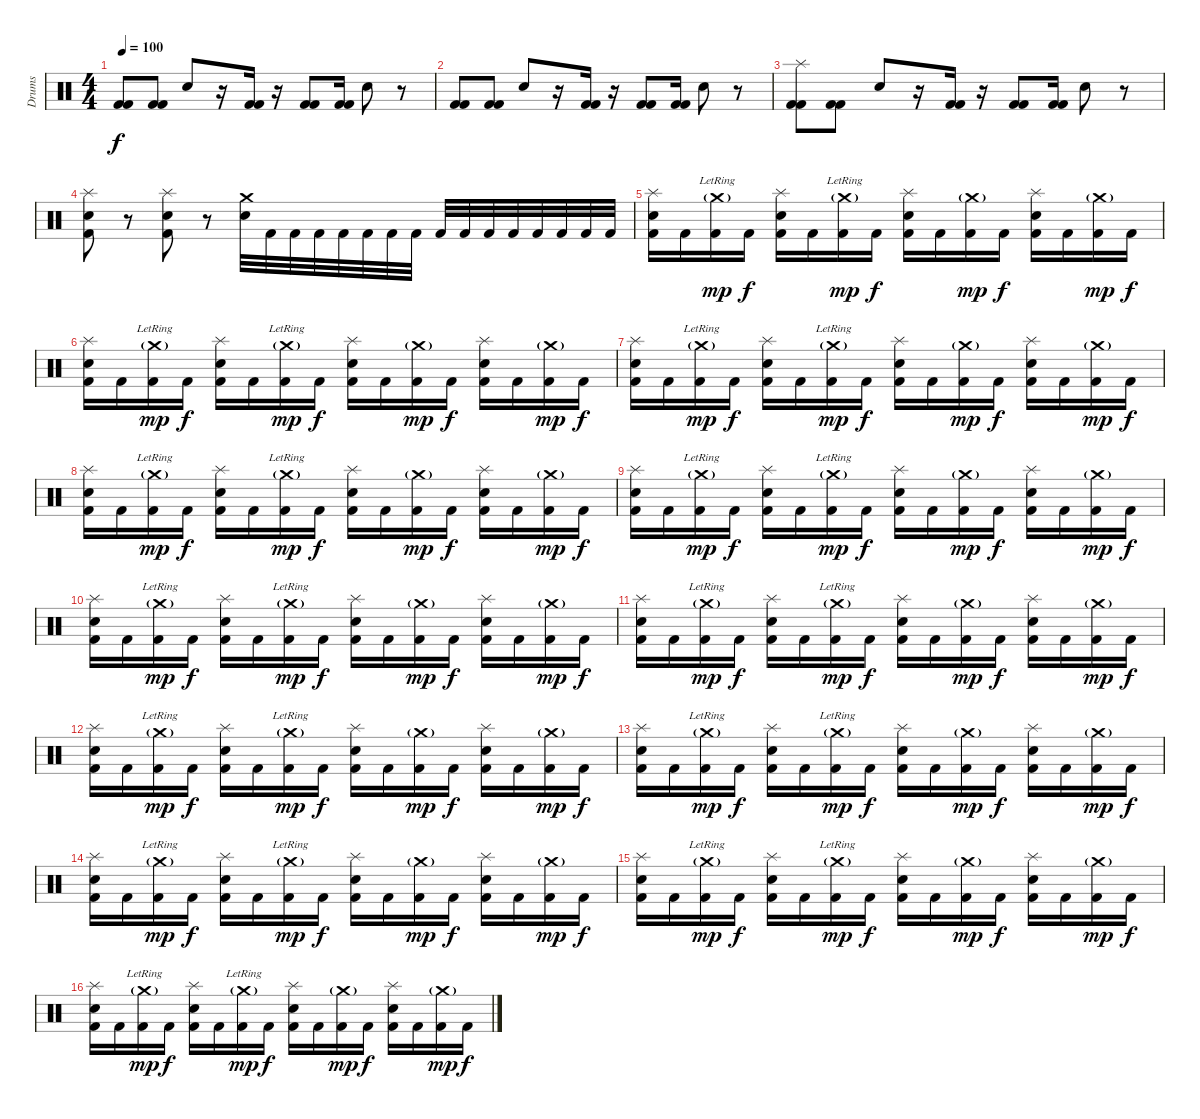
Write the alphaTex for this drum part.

\track ("Drums" "Drums") {instrument percussion}
\staff {score}
\articulation defaults
\ts (4 4)
\tempo 100
\clef neutral
\ks c
("Kick (hit) 2" "Kick (hit) 2").8{dy f} ("Kick (hit) 2" "Kick (hit) 2").8 "Electric Snare (hit)".8 r.16 ("Kick (hit) 2" "Kick (hit) 2").16 r.16 ("Kick (hit) 2" "Kick (hit) 2").8 ("Kick (hit) 2" "Kick (hit) 2").16 "Electric Snare (hit)".8 r.8 |
("Kick (hit) 2" "Kick (hit) 2").8 ("Kick (hit) 2" "Kick (hit) 2").8 "Electric Snare (hit)".8 r.16 ("Kick (hit) 2" "Kick (hit) 2").16 r.16 ("Kick (hit) 2" "Kick (hit) 2").8 ("Kick (hit) 2" "Kick (hit) 2").16 "Electric Snare (hit)".8 r.8 |
("Splash (hit)" "Kick (hit) 2" "Kick (hit) 2").8 ("Kick (hit) 2" "Kick (hit) 2").8 "Electric Snare (hit)".8 r.16 ("Kick (hit) 2" "Kick (hit) 2").16 r.16 ("Kick (hit) 2" "Kick (hit) 2").8 ("Kick (hit) 2" "Kick (hit) 2").16 "Electric Snare (hit)".8 r.8 |
("Splash (hit)" "Electric Snare (hit)" "Kick (hit) 2").8 r.8 ("Splash (hit)" "Electric Snare (hit)" "Kick (hit) 2").8 r.8 ("Crash medium (hit)" "Electric Snare (hit)").32 "Kick (hit) 2".32 "Kick (hit) 2".32 "Kick (hit) 2".32 "Kick (hit) 2".32 "Kick (hit) 2".32 "Kick (hit) 2".32 "Kick (hit) 2".32 "Kick (hit) 2".32 "Kick (hit) 2".32 "Kick (hit) 2".32 "Kick (hit) 2".32 "Kick (hit) 2".32 "Kick (hit) 2".32 "Kick (hit) 2".32 "Kick (hit) 2".32 |
("Splash (hit)" "Electric Snare (hit)" "Kick (hit) 2").16 "Kick (hit) 2".16 ("Crash medium (hit)"{g lr} "Kick (hit) 2").16{dy mp} "Kick (hit) 2".16{dy f} ("Splash (hit)" "Electric Snare (hit)" "Kick (hit) 2").16 "Kick (hit) 2".16 ("Crash medium (hit)"{g lr} "Kick (hit) 2").16{dy mp} "Kick (hit) 2".16{dy f} ("Splash (hit)" "Electric Snare (hit)" "Kick (hit) 2").16 "Kick (hit) 2".16 ("Crash medium (hit)"{g} "Kick (hit) 2").16{dy mp} "Kick (hit) 2".16{dy f} ("Splash (hit)" "Electric Snare (hit)" "Kick (hit) 2").16 "Kick (hit) 2".16 ("Crash medium (hit)"{g} "Kick (hit) 2").16{dy mp} "Kick (hit) 2".16{dy f} |
("Splash (hit)" "Electric Snare (hit)" "Kick (hit) 2").16 "Kick (hit) 2".16 ("Crash medium (hit)"{g lr} "Kick (hit) 2").16{dy mp} "Kick (hit) 2".16{dy f} ("Splash (hit)" "Electric Snare (hit)" "Kick (hit) 2").16 "Kick (hit) 2".16 ("Crash medium (hit)"{g lr} "Kick (hit) 2").16{dy mp} "Kick (hit) 2".16{dy f} ("Splash (hit)" "Electric Snare (hit)" "Kick (hit) 2").16 "Kick (hit) 2".16 ("Crash medium (hit)"{g} "Kick (hit) 2").16{dy mp} "Kick (hit) 2".16{dy f} ("Splash (hit)" "Electric Snare (hit)" "Kick (hit) 2").16 "Kick (hit) 2".16 ("Crash medium (hit)"{g} "Kick (hit) 2").16{dy mp} "Kick (hit) 2".16{dy f} |
("Splash (hit)" "Electric Snare (hit)" "Kick (hit) 2").16 "Kick (hit) 2".16 ("Crash medium (hit)"{g lr} "Kick (hit) 2").16{dy mp} "Kick (hit) 2".16{dy f} ("Splash (hit)" "Electric Snare (hit)" "Kick (hit) 2").16 "Kick (hit) 2".16 ("Crash medium (hit)"{g lr} "Kick (hit) 2").16{dy mp} "Kick (hit) 2".16{dy f} ("Splash (hit)" "Electric Snare (hit)" "Kick (hit) 2").16 "Kick (hit) 2".16 ("Crash medium (hit)"{g} "Kick (hit) 2").16{dy mp} "Kick (hit) 2".16{dy f} ("Splash (hit)" "Electric Snare (hit)" "Kick (hit) 2").16 "Kick (hit) 2".16 ("Crash medium (hit)"{g} "Kick (hit) 2").16{dy mp} "Kick (hit) 2".16{dy f} |
("Splash (hit)" "Electric Snare (hit)" "Kick (hit) 2").16 "Kick (hit) 2".16 ("Crash medium (hit)"{g lr} "Kick (hit) 2").16{dy mp} "Kick (hit) 2".16{dy f} ("Splash (hit)" "Electric Snare (hit)" "Kick (hit) 2").16 "Kick (hit) 2".16 ("Crash medium (hit)"{g lr} "Kick (hit) 2").16{dy mp} "Kick (hit) 2".16{dy f} ("Splash (hit)" "Electric Snare (hit)" "Kick (hit) 2").16 "Kick (hit) 2".16 ("Crash medium (hit)"{g} "Kick (hit) 2").16{dy mp} "Kick (hit) 2".16{dy f} ("Splash (hit)" "Electric Snare (hit)" "Kick (hit) 2").16 "Kick (hit) 2".16 ("Crash medium (hit)"{g} "Kick (hit) 2").16{dy mp} "Kick (hit) 2".16{dy f} |
("Splash (hit)" "Electric Snare (hit)" "Kick (hit) 2").16 "Kick (hit) 2".16 ("Crash medium (hit)"{g lr} "Kick (hit) 2").16{dy mp} "Kick (hit) 2".16{dy f} ("Splash (hit)" "Electric Snare (hit)" "Kick (hit) 2").16 "Kick (hit) 2".16 ("Crash medium (hit)"{g lr} "Kick (hit) 2").16{dy mp} "Kick (hit) 2".16{dy f} ("Splash (hit)" "Electric Snare (hit)" "Kick (hit) 2").16 "Kick (hit) 2".16 ("Crash medium (hit)"{g} "Kick (hit) 2").16{dy mp} "Kick (hit) 2".16{dy f} ("Splash (hit)" "Electric Snare (hit)" "Kick (hit) 2").16 "Kick (hit) 2".16 ("Crash medium (hit)"{g} "Kick (hit) 2").16{dy mp} "Kick (hit) 2".16{dy f} |
("Splash (hit)" "Electric Snare (hit)" "Kick (hit) 2").16 "Kick (hit) 2".16 ("Crash medium (hit)"{g lr} "Kick (hit) 2").16{dy mp} "Kick (hit) 2".16{dy f} ("Splash (hit)" "Electric Snare (hit)" "Kick (hit) 2").16 "Kick (hit) 2".16 ("Crash medium (hit)"{g lr} "Kick (hit) 2").16{dy mp} "Kick (hit) 2".16{dy f} ("Splash (hit)" "Electric Snare (hit)" "Kick (hit) 2").16 "Kick (hit) 2".16 ("Crash medium (hit)"{g} "Kick (hit) 2").16{dy mp} "Kick (hit) 2".16{dy f} ("Splash (hit)" "Electric Snare (hit)" "Kick (hit) 2").16 "Kick (hit) 2".16 ("Crash medium (hit)"{g} "Kick (hit) 2").16{dy mp} "Kick (hit) 2".16{dy f} |
("Splash (hit)" "Electric Snare (hit)" "Kick (hit) 2").16 "Kick (hit) 2".16 ("Crash medium (hit)"{g lr} "Kick (hit) 2").16{dy mp} "Kick (hit) 2".16{dy f} ("Splash (hit)" "Electric Snare (hit)" "Kick (hit) 2").16 "Kick (hit) 2".16 ("Crash medium (hit)"{g lr} "Kick (hit) 2").16{dy mp} "Kick (hit) 2".16{dy f} ("Splash (hit)" "Electric Snare (hit)" "Kick (hit) 2").16 "Kick (hit) 2".16 ("Crash medium (hit)"{g} "Kick (hit) 2").16{dy mp} "Kick (hit) 2".16{dy f} ("Splash (hit)" "Electric Snare (hit)" "Kick (hit) 2").16 "Kick (hit) 2".16 ("Crash medium (hit)"{g} "Kick (hit) 2").16{dy mp} "Kick (hit) 2".16{dy f} |
("Splash (hit)" "Electric Snare (hit)" "Kick (hit) 2").16 "Kick (hit) 2".16 ("Crash medium (hit)"{g lr} "Kick (hit) 2").16{dy mp} "Kick (hit) 2".16{dy f} ("Splash (hit)" "Electric Snare (hit)" "Kick (hit) 2").16 "Kick (hit) 2".16 ("Crash medium (hit)"{g lr} "Kick (hit) 2").16{dy mp} "Kick (hit) 2".16{dy f} ("Splash (hit)" "Electric Snare (hit)" "Kick (hit) 2").16 "Kick (hit) 2".16 ("Crash medium (hit)"{g} "Kick (hit) 2").16{dy mp} "Kick (hit) 2".16{dy f} ("Splash (hit)" "Electric Snare (hit)" "Kick (hit) 2").16 "Kick (hit) 2".16 ("Crash medium (hit)"{g} "Kick (hit) 2").16{dy mp} "Kick (hit) 2".16{dy f} |
("Splash (hit)" "Electric Snare (hit)" "Kick (hit) 2").16 "Kick (hit) 2".16 ("Crash medium (hit)"{g lr} "Kick (hit) 2").16{dy mp} "Kick (hit) 2".16{dy f} ("Splash (hit)" "Electric Snare (hit)" "Kick (hit) 2").16 "Kick (hit) 2".16 ("Crash medium (hit)"{g lr} "Kick (hit) 2").16{dy mp} "Kick (hit) 2".16{dy f} ("Splash (hit)" "Electric Snare (hit)" "Kick (hit) 2").16 "Kick (hit) 2".16 ("Crash medium (hit)"{g} "Kick (hit) 2").16{dy mp} "Kick (hit) 2".16{dy f} ("Splash (hit)" "Electric Snare (hit)" "Kick (hit) 2").16 "Kick (hit) 2".16 ("Crash medium (hit)"{g} "Kick (hit) 2").16{dy mp} "Kick (hit) 2".16{dy f} |
("Splash (hit)" "Electric Snare (hit)" "Kick (hit) 2").16 "Kick (hit) 2".16 ("Crash medium (hit)"{g lr} "Kick (hit) 2").16{dy mp} "Kick (hit) 2".16{dy f} ("Splash (hit)" "Electric Snare (hit)" "Kick (hit) 2").16 "Kick (hit) 2".16 ("Crash medium (hit)"{g lr} "Kick (hit) 2").16{dy mp} "Kick (hit) 2".16{dy f} ("Splash (hit)" "Electric Snare (hit)" "Kick (hit) 2").16 "Kick (hit) 2".16 ("Crash medium (hit)"{g} "Kick (hit) 2").16{dy mp} "Kick (hit) 2".16{dy f} ("Splash (hit)" "Electric Snare (hit)" "Kick (hit) 2").16 "Kick (hit) 2".16 ("Crash medium (hit)"{g} "Kick (hit) 2").16{dy mp} "Kick (hit) 2".16{dy f} |
("Splash (hit)" "Electric Snare (hit)" "Kick (hit) 2").16 "Kick (hit) 2".16 ("Crash medium (hit)"{g lr} "Kick (hit) 2").16{dy mp} "Kick (hit) 2".16{dy f} ("Splash (hit)" "Electric Snare (hit)" "Kick (hit) 2").16 "Kick (hit) 2".16 ("Crash medium (hit)"{g lr} "Kick (hit) 2").16{dy mp} "Kick (hit) 2".16{dy f} ("Splash (hit)" "Electric Snare (hit)" "Kick (hit) 2").16 "Kick (hit) 2".16 ("Crash medium (hit)"{g} "Kick (hit) 2").16{dy mp} "Kick (hit) 2".16{dy f} ("Splash (hit)" "Electric Snare (hit)" "Kick (hit) 2").16 "Kick (hit) 2".16 ("Crash medium (hit)"{g} "Kick (hit) 2").16{dy mp} "Kick (hit) 2".16{dy f} |
("Splash (hit)" "Electric Snare (hit)" "Kick (hit) 2").16 "Kick (hit) 2".16 ("Crash medium (hit)"{g lr} "Kick (hit) 2").16{dy mp} "Kick (hit) 2".16{dy f} ("Splash (hit)" "Electric Snare (hit)" "Kick (hit) 2").16 "Kick (hit) 2".16 ("Crash medium (hit)"{g lr} "Kick (hit) 2").16{dy mp} "Kick (hit) 2".16{dy f} ("Splash (hit)" "Electric Snare (hit)" "Kick (hit) 2").16 "Kick (hit) 2".16 ("Crash medium (hit)"{g} "Kick (hit) 2").16{dy mp} "Kick (hit) 2".16{dy f} ("Splash (hit)" "Electric Snare (hit)" "Kick (hit) 2").16 "Kick (hit) 2".16 ("Crash medium (hit)"{g} "Kick (hit) 2").16{dy mp} "Kick (hit) 2".16{dy f}
